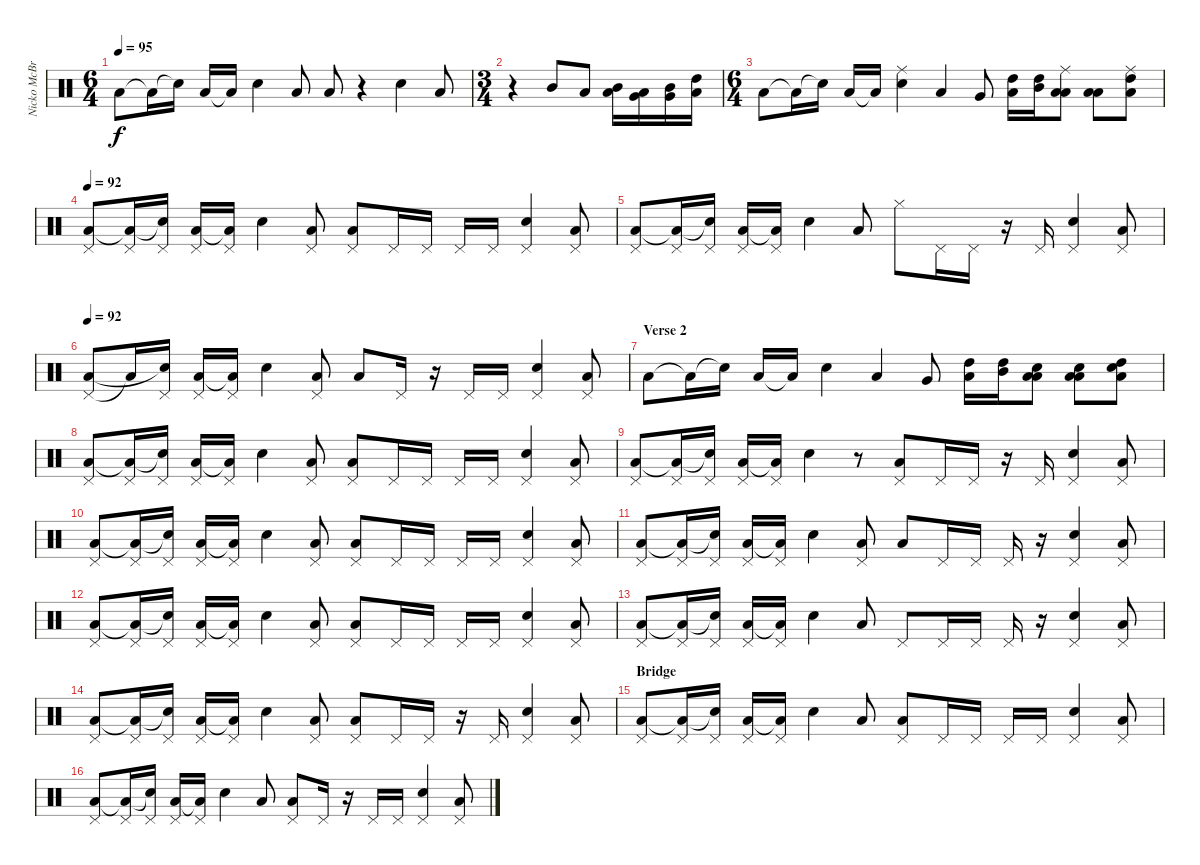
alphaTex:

\track ("Nicko McBrain" "Nicko McBr") {instrument percussion}
\staff {score}
\articulation defaults
\ts (6 4)
\tempo 95
\clef neutral
\ks c "Low Floor Tom (hit)".8{dy f} "Low Floor Tom (hit)"{t}.16 "Electric Snare (hit)"{t}.16 "Low Floor Tom (hit)".16 "Low Floor Tom (hit)"{t}.16 "Electric Snare (hit)".4 "Low Floor Tom (hit)".8 "Low Floor Tom (hit)".8
r.4 "Electric Snare (hit)".4 "Low Floor Tom (hit)".8 |
\ts (3 4)
r.4 "Mid Tom (hit)".8 "Low Tom (hit)".8 ("Mid Tom (hit)" "Low Tom (hit)").16 ("Low Tom (hit)" "Very Low Tom (hit)").16 ("Very Low Tom (hit)" "Mid Tom (hit)").16 ("High Tom (hit)" "Low Floor Tom (hit)").16 |
\ts (6 4)
"Low Floor Tom (hit)".8 "Low Floor Tom (hit)"{t}.16 "Electric Snare (hit)"{t}.16 "Low Floor Tom (hit)".16 "Low Floor Tom (hit)"{t}.16 ("Ride (middle)" "Electric Snare (hit)").4 "Low Floor Tom (hit)".4 "Very Low Tom (hit)".8 ("High Tom (hit)" "Low Floor Tom (hit)").16 ("High Tom (hit)" "Mid Tom (hit)").16 ("Low Tom (hit)" "Low Tom (hit)" "Ride (middle)").8 ("Low Floor Tom (hit)" "Low Tom (hit)").8 ("High Tom (hit)" "Low Tom (hit)" "Ride (middle)").8 |
\tempo 92
("Pedal Hi-Hat (hit)" "Low Floor Tom (hit)").8 ("Pedal Hi-Hat (hit)" "Low Floor Tom (hit)"{t}).16 ("Pedal Hi-Hat (hit)" "Electric Snare (hit)"{t}).16 ("Pedal Hi-Hat (hit)" "Low Floor Tom (hit)").16 ("Pedal Hi-Hat (hit)" "Low Floor Tom (hit)"{t}).16 "Electric Snare (hit)".4 ("Pedal Hi-Hat (hit)" "Low Floor Tom (hit)").8 ("Pedal Hi-Hat (hit)" "Low Floor Tom (hit)").8 "Pedal Hi-Hat (hit)".16 "Pedal Hi-Hat (hit)".16 "Pedal Hi-Hat (hit)".16 "Pedal Hi-Hat (hit)".16 ("Pedal Hi-Hat (hit)" "Electric Snare (hit)").4 ("Pedal Hi-Hat (hit)" "Low Floor Tom (hit)").8 |
("Pedal Hi-Hat (hit)" "Low Floor Tom (hit)").8 ("Pedal Hi-Hat (hit)" "Low Floor Tom (hit)"{t}).16 ("Pedal Hi-Hat (hit)" "Electric Snare (hit)"{t}).16 ("Pedal Hi-Hat (hit)" "Low Floor Tom (hit)").16 ("Pedal Hi-Hat (hit)" "Low Floor Tom (hit)"{t}).16 "Electric Snare (hit)".4 "Low Floor Tom (hit)".8 "Hi-Hat (closed)".8 "Pedal Hi-Hat (hit)".16 "Pedal Hi-Hat (hit)".16 r.16 "Pedal Hi-Hat (hit)".16 ("Pedal Hi-Hat (hit)" "Electric Snare (hit)").4 ("Pedal Hi-Hat (hit)" "Low Floor Tom (hit)").8 |
\tempo 92
("Pedal Hi-Hat (hit)" "Low Floor Tom (hit)").8 "Low Floor Tom (hit)"{t}.16 ("Pedal Hi-Hat (hit)" "Electric Snare (hit)"{t}).16 ("Pedal Hi-Hat (hit)" "Low Floor Tom (hit)").16 ("Pedal Hi-Hat (hit)" "Low Floor Tom (hit)"{t}).16 "Electric Snare (hit)".4 ("Pedal Hi-Hat (hit)" "Low Floor Tom (hit)").8 "Low Floor Tom (hit)".8 "Pedal Hi-Hat (hit)".16 r.16 "Pedal Hi-Hat (hit)".16 "Pedal Hi-Hat (hit)".16 ("Pedal Hi-Hat (hit)" "Electric Snare (hit)").4 ("Pedal Hi-Hat (hit)" "Low Floor Tom (hit)").8 |
\section ("" "Verse 2")
"Low Floor Tom (hit)".8 "Low Floor Tom (hit)"{t}.16 "Electric Snare (hit)"{t}.16 "Low Floor Tom (hit)".16 "Low Floor Tom (hit)"{t}.16 "Electric Snare (hit)".4 "Low Floor Tom (hit)".4 "Very Low Tom (hit)".8 ("High Tom (hit)" "Low Floor Tom (hit)").16 ("High Tom (hit)" "Mid Tom (hit)").16 ("Low Tom (hit)" "Low Tom (hit)" "Electric Snare (hit)").8 ("Low Floor Tom (hit)" "Low Tom (hit)" "Electric Snare (hit)").8 ("High Tom (hit)" "Low Tom (hit)" "Electric Snare (hit)").8 |
("Pedal Hi-Hat (hit)" "Low Floor Tom (hit)").8 ("Pedal Hi-Hat (hit)" "Low Floor Tom (hit)"{t}).16 ("Pedal Hi-Hat (hit)" "Electric Snare (hit)"{t}).16 ("Pedal Hi-Hat (hit)" "Low Floor Tom (hit)").16 ("Pedal Hi-Hat (hit)" "Low Floor Tom (hit)"{t}).16 "Electric Snare (hit)".4 ("Pedal Hi-Hat (hit)" "Low Floor Tom (hit)").8 ("Pedal Hi-Hat (hit)" "Low Floor Tom (hit)").8 "Pedal Hi-Hat (hit)".16 "Pedal Hi-Hat (hit)".16 "Pedal Hi-Hat (hit)".16 "Pedal Hi-Hat (hit)".16 ("Pedal Hi-Hat (hit)" "Electric Snare (hit)").4 ("Pedal Hi-Hat (hit)" "Low Floor Tom (hit)").8 |
("Pedal Hi-Hat (hit)" "Low Floor Tom (hit)").8 ("Pedal Hi-Hat (hit)" "Low Floor Tom (hit)"{t}).16 ("Pedal Hi-Hat (hit)" "Electric Snare (hit)"{t}).16 ("Pedal Hi-Hat (hit)" "Low Floor Tom (hit)").16 ("Pedal Hi-Hat (hit)" "Low Floor Tom (hit)"{t}).16 "Electric Snare (hit)".4 r.8 ("Pedal Hi-Hat (hit)" "Low Floor Tom (hit)").8 "Pedal Hi-Hat (hit)".16 "Pedal Hi-Hat (hit)".16 r.16 "Pedal Hi-Hat (hit)".16 ("Pedal Hi-Hat (hit)" "Electric Snare (hit)").4 ("Pedal Hi-Hat (hit)" "Low Floor Tom (hit)").8 |
("Pedal Hi-Hat (hit)" "Low Floor Tom (hit)").8 ("Pedal Hi-Hat (hit)" "Low Floor Tom (hit)"{t}).16 ("Pedal Hi-Hat (hit)" "Electric Snare (hit)"{t}).16 ("Pedal Hi-Hat (hit)" "Low Floor Tom (hit)").16 ("Pedal Hi-Hat (hit)" "Low Floor Tom (hit)"{t}).16 "Electric Snare (hit)".4 ("Pedal Hi-Hat (hit)" "Low Floor Tom (hit)").8 ("Pedal Hi-Hat (hit)" "Low Floor Tom (hit)").8 "Pedal Hi-Hat (hit)".16 "Pedal Hi-Hat (hit)".16 "Pedal Hi-Hat (hit)".16 "Pedal Hi-Hat (hit)".16 ("Pedal Hi-Hat (hit)" "Electric Snare (hit)").4 ("Pedal Hi-Hat (hit)" "Low Floor Tom (hit)").8 |
("Pedal Hi-Hat (hit)" "Low Floor Tom (hit)").8 ("Pedal Hi-Hat (hit)" "Low Floor Tom (hit)"{t}).16 ("Pedal Hi-Hat (hit)" "Electric Snare (hit)"{t}).16 ("Pedal Hi-Hat (hit)" "Low Floor Tom (hit)").16 ("Pedal Hi-Hat (hit)" "Low Floor Tom (hit)"{t}).16 "Electric Snare (hit)".4 ("Pedal Hi-Hat (hit)" "Low Floor Tom (hit)").8 "Low Floor Tom (hit)".8 "Pedal Hi-Hat (hit)".16 "Pedal Hi-Hat (hit)".16 "Pedal Hi-Hat (hit)".16 r.16 ("Pedal Hi-Hat (hit)" "Electric Snare (hit)").4 ("Pedal Hi-Hat (hit)" "Low Floor Tom (hit)").8 |
("Pedal Hi-Hat (hit)" "Low Floor Tom (hit)").8 ("Pedal Hi-Hat (hit)" "Low Floor Tom (hit)"{t}).16 ("Pedal Hi-Hat (hit)" "Electric Snare (hit)"{t}).16 ("Pedal Hi-Hat (hit)" "Low Floor Tom (hit)").16 ("Pedal Hi-Hat (hit)" "Low Floor Tom (hit)"{t}).16 "Electric Snare (hit)".4 ("Pedal Hi-Hat (hit)" "Low Floor Tom (hit)").8 ("Pedal Hi-Hat (hit)" "Low Floor Tom (hit)").8 "Pedal Hi-Hat (hit)".16 "Pedal Hi-Hat (hit)".16 "Pedal Hi-Hat (hit)".16 "Pedal Hi-Hat (hit)".16 ("Pedal Hi-Hat (hit)" "Electric Snare (hit)").4 ("Pedal Hi-Hat (hit)" "Low Floor Tom (hit)").8 |
("Pedal Hi-Hat (hit)" "Low Floor Tom (hit)").8 ("Pedal Hi-Hat (hit)" "Low Floor Tom (hit)"{t}).16 ("Pedal Hi-Hat (hit)" "Electric Snare (hit)"{t}).16 ("Pedal Hi-Hat (hit)" "Low Floor Tom (hit)").16 ("Pedal Hi-Hat (hit)" "Low Floor Tom (hit)"{t}).16 "Electric Snare (hit)".4 "Low Floor Tom (hit)".8 "Pedal Hi-Hat (hit)".8 "Pedal Hi-Hat (hit)".16 "Pedal Hi-Hat (hit)".16 "Pedal Hi-Hat (hit)".16 r.16 ("Pedal Hi-Hat (hit)" "Electric Snare (hit)").4 ("Pedal Hi-Hat (hit)" "Low Floor Tom (hit)").8 |
("Pedal Hi-Hat (hit)" "Low Floor Tom (hit)").8 ("Pedal Hi-Hat (hit)" "Low Floor Tom (hit)"{t}).16 ("Pedal Hi-Hat (hit)" "Electric Snare (hit)"{t}).16 ("Pedal Hi-Hat (hit)" "Low Floor Tom (hit)").16 ("Pedal Hi-Hat (hit)" "Low Floor Tom (hit)"{t}).16 "Electric Snare (hit)".4 ("Pedal Hi-Hat (hit)" "Low Floor Tom (hit)").8 ("Pedal Hi-Hat (hit)" "Low Floor Tom (hit)").8 "Pedal Hi-Hat (hit)".16 "Pedal Hi-Hat (hit)".16 r.16 "Pedal Hi-Hat (hit)".16 ("Pedal Hi-Hat (hit)" "Electric Snare (hit)").4 ("Pedal Hi-Hat (hit)" "Low Floor Tom (hit)").8 |
\section ("" "Bridge")
("Pedal Hi-Hat (hit)" "Low Floor Tom (hit)").8 ("Pedal Hi-Hat (hit)" "Low Floor Tom (hit)"{t}).16 ("Pedal Hi-Hat (hit)" "Electric Snare (hit)"{t}).16 ("Pedal Hi-Hat (hit)" "Low Floor Tom (hit)").16 ("Pedal Hi-Hat (hit)" "Low Floor Tom (hit)"{t}).16 "Electric Snare (hit)".4 "Low Floor Tom (hit)".8 ("Pedal Hi-Hat (hit)" "Low Floor Tom (hit)").8 "Pedal Hi-Hat (hit)".16 "Pedal Hi-Hat (hit)".16 "Pedal Hi-Hat (hit)".16 "Pedal Hi-Hat (hit)".16 ("Pedal Hi-Hat (hit)" "Electric Snare (hit)").4 ("Pedal Hi-Hat (hit)" "Low Floor Tom (hit)").8 |
("Pedal Hi-Hat (hit)" "Low Floor Tom (hit)").8 ("Pedal Hi-Hat (hit)" "Low Floor Tom (hit)"{t}).16 ("Pedal Hi-Hat (hit)" "Electric Snare (hit)"{t}).16 ("Pedal Hi-Hat (hit)" "Low Floor Tom (hit)").16 ("Pedal Hi-Hat (hit)" "Low Floor Tom (hit)"{t}).16 "Electric Snare (hit)".4 "Low Floor Tom (hit)".8 ("Pedal Hi-Hat (hit)" "Low Floor Tom (hit)").8 "Pedal Hi-Hat (hit)".16 r.16 "Pedal Hi-Hat (hit)".16 "Pedal Hi-Hat (hit)".16 ("Pedal Hi-Hat (hit)" "Electric Snare (hit)").4 ("Pedal Hi-Hat (hit)" "Low Floor Tom (hit)").8
